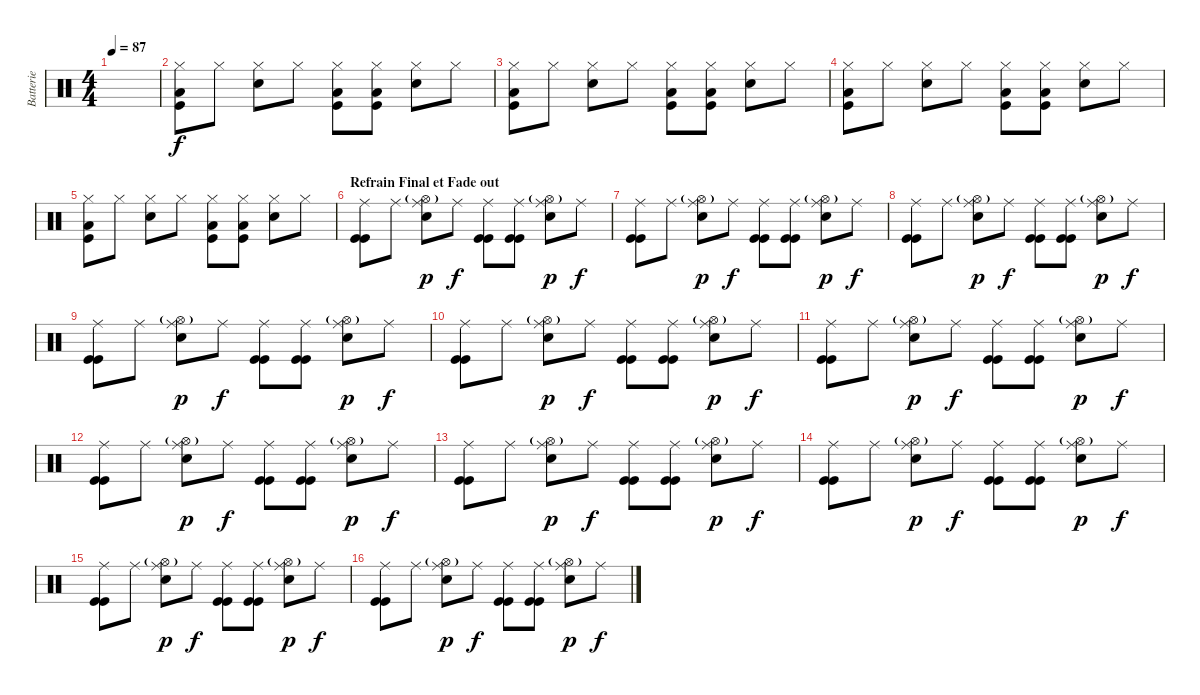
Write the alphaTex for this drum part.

\track ("Batterie" "Batterie") {instrument percussion}
\staff {score}
\articulation defaults
\ts (4 4)
\tempo 87
\clef neutral
\ks c
|
("Hi-Hat (closed)" "Kick (hit)" "Low Floor Tom (hit)").8 "Hi-Hat (closed)".8 ("Hi-Hat (closed)" "Snare (hit) 2").8 "Hi-Hat (closed)".8 ("Hi-Hat (closed)" "Kick (hit)" "Low Floor Tom (hit)").8 ("Hi-Hat (closed)" "Kick (hit)" "Low Floor Tom (hit)").8 ("Hi-Hat (closed)" "Snare (hit) 2").8 "Hi-Hat (closed)".8 |
("Hi-Hat (closed)" "Kick (hit)" "Low Floor Tom (hit)").8 "Hi-Hat (closed)".8 ("Hi-Hat (closed)" "Snare (hit) 2").8 "Hi-Hat (closed)".8 ("Hi-Hat (closed)" "Kick (hit)" "Low Floor Tom (hit)").8 ("Hi-Hat (closed)" "Kick (hit)" "Low Floor Tom (hit)").8 ("Hi-Hat (closed)" "Snare (hit) 2").8 "Hi-Hat (closed)".8 |
("Hi-Hat (closed)" "Kick (hit)" "Low Floor Tom (hit)").8 "Hi-Hat (closed)".8 ("Hi-Hat (closed)" "Snare (hit) 2").8 "Hi-Hat (closed)".8 ("Hi-Hat (closed)" "Kick (hit)" "Low Floor Tom (hit)").8 ("Hi-Hat (closed)" "Kick (hit)" "Low Floor Tom (hit)").8 ("Hi-Hat (closed)" "Snare (hit) 2").8 "Hi-Hat (closed)".8 |
("Hi-Hat (closed)" "Kick (hit)" "Low Floor Tom (hit)").8 "Hi-Hat (closed)".8 ("Hi-Hat (closed)" "Snare (hit) 2").8 "Hi-Hat (closed)".8 ("Hi-Hat (closed)" "Kick (hit)" "Low Floor Tom (hit)").8 ("Hi-Hat (closed)" "Kick (hit)" "Low Floor Tom (hit)").8 ("Hi-Hat (closed)" "Snare (hit) 2").8 "Hi-Hat (closed)".8 |
\section ("" "Refrain Final et Fade out")
("Ride (middle)" "Kick (hit)" "Kick (hit)").8 "Ride (middle)".8 ("Hi-Hat (open)"{g} "Ride (middle)" "Electric Snare (hit)").8{dy p} "Ride (middle)".8{dy f} ("Ride (middle)" "Kick (hit)" "Kick (hit)").8 ("Ride (middle)" "Kick (hit)" "Kick (hit)").8 ("Hi-Hat (open)"{g} "Ride (middle)" "Electric Snare (hit)").8{dy p} "Ride (middle)".8{dy f} |
("Ride (middle)" "Kick (hit)" "Kick (hit)").8 "Ride (middle)".8 ("Hi-Hat (open)"{g} "Ride (middle)" "Electric Snare (hit)").8{dy p} "Ride (middle)".8{dy f} ("Ride (middle)" "Kick (hit)" "Kick (hit)").8 ("Ride (middle)" "Kick (hit)" "Kick (hit)").8 ("Hi-Hat (open)"{g} "Ride (middle)" "Electric Snare (hit)").8{dy p} "Ride (middle)".8{dy f} |
("Ride (middle)" "Kick (hit)" "Kick (hit)").8 "Ride (middle)".8 ("Hi-Hat (open)"{g} "Ride (middle)" "Electric Snare (hit)").8{dy p} "Ride (middle)".8{dy f} ("Ride (middle)" "Kick (hit)" "Kick (hit)").8 ("Ride (middle)" "Kick (hit)" "Kick (hit)").8 ("Hi-Hat (open)"{g} "Ride (middle)" "Electric Snare (hit)").8{dy p} "Ride (middle)".8{dy f} |
("Ride (middle)" "Kick (hit)" "Kick (hit)").8 "Ride (middle)".8 ("Hi-Hat (open)"{g} "Ride (middle)" "Electric Snare (hit)").8{dy p} "Ride (middle)".8{dy f} ("Ride (middle)" "Kick (hit)" "Kick (hit)").8 ("Ride (middle)" "Kick (hit)" "Kick (hit)").8 ("Hi-Hat (open)"{g} "Ride (middle)" "Electric Snare (hit)").8{dy p} "Ride (middle)".8{dy f} |
("Ride (middle)" "Kick (hit)" "Kick (hit)").8 "Ride (middle)".8 ("Hi-Hat (open)"{g} "Ride (middle)" "Electric Snare (hit)").8{dy p} "Ride (middle)".8{dy f} ("Ride (middle)" "Kick (hit)" "Kick (hit)").8 ("Ride (middle)" "Kick (hit)" "Kick (hit)").8 ("Hi-Hat (open)"{g} "Ride (middle)" "Electric Snare (hit)").8{dy p} "Ride (middle)".8{dy f} |
("Ride (middle)" "Kick (hit)" "Kick (hit)").8 "Ride (middle)".8 ("Hi-Hat (open)"{g} "Ride (middle)" "Electric Snare (hit)").8{dy p} "Ride (middle)".8{dy f} ("Ride (middle)" "Kick (hit)" "Kick (hit)").8 ("Ride (middle)" "Kick (hit)" "Kick (hit)").8 ("Hi-Hat (open)"{g} "Ride (middle)" "Electric Snare (hit)").8{dy p} "Ride (middle)".8{dy f} |
("Ride (middle)" "Kick (hit)" "Kick (hit)").8 "Ride (middle)".8 ("Hi-Hat (open)"{g} "Ride (middle)" "Electric Snare (hit)").8{dy p} "Ride (middle)".8{dy f} ("Ride (middle)" "Kick (hit)" "Kick (hit)").8 ("Ride (middle)" "Kick (hit)" "Kick (hit)").8 ("Hi-Hat (open)"{g} "Ride (middle)" "Electric Snare (hit)").8{dy p} "Ride (middle)".8{dy f} |
("Ride (middle)" "Kick (hit)" "Kick (hit)").8 "Ride (middle)".8 ("Hi-Hat (open)"{g} "Ride (middle)" "Electric Snare (hit)").8{dy p} "Ride (middle)".8{dy f} ("Ride (middle)" "Kick (hit)" "Kick (hit)").8 ("Ride (middle)" "Kick (hit)" "Kick (hit)").8 ("Hi-Hat (open)"{g} "Ride (middle)" "Electric Snare (hit)").8{dy p} "Ride (middle)".8{dy f} |
("Ride (middle)" "Kick (hit)" "Kick (hit)").8 "Ride (middle)".8 ("Hi-Hat (open)"{g} "Ride (middle)" "Electric Snare (hit)").8{dy p} "Ride (middle)".8{dy f} ("Ride (middle)" "Kick (hit)" "Kick (hit)").8 ("Ride (middle)" "Kick (hit)" "Kick (hit)").8 ("Hi-Hat (open)"{g} "Ride (middle)" "Electric Snare (hit)").8{dy p} "Ride (middle)".8{dy f} |
("Ride (middle)" "Kick (hit)" "Kick (hit)").8 "Ride (middle)".8 ("Hi-Hat (open)"{g} "Ride (middle)" "Electric Snare (hit)").8{dy p} "Ride (middle)".8{dy f} ("Ride (middle)" "Kick (hit)" "Kick (hit)").8 ("Ride (middle)" "Kick (hit)" "Kick (hit)").8 ("Hi-Hat (open)"{g} "Ride (middle)" "Electric Snare (hit)").8{dy p} "Ride (middle)".8{dy f} |
("Ride (middle)" "Kick (hit)" "Kick (hit)").8 "Ride (middle)".8 ("Hi-Hat (open)"{g} "Ride (middle)" "Electric Snare (hit)").8{dy p} "Ride (middle)".8{dy f} ("Ride (middle)" "Kick (hit)" "Kick (hit)").8 ("Ride (middle)" "Kick (hit)" "Kick (hit)").8 ("Hi-Hat (open)"{g} "Ride (middle)" "Electric Snare (hit)").8{dy p} "Ride (middle)".8{dy f}
